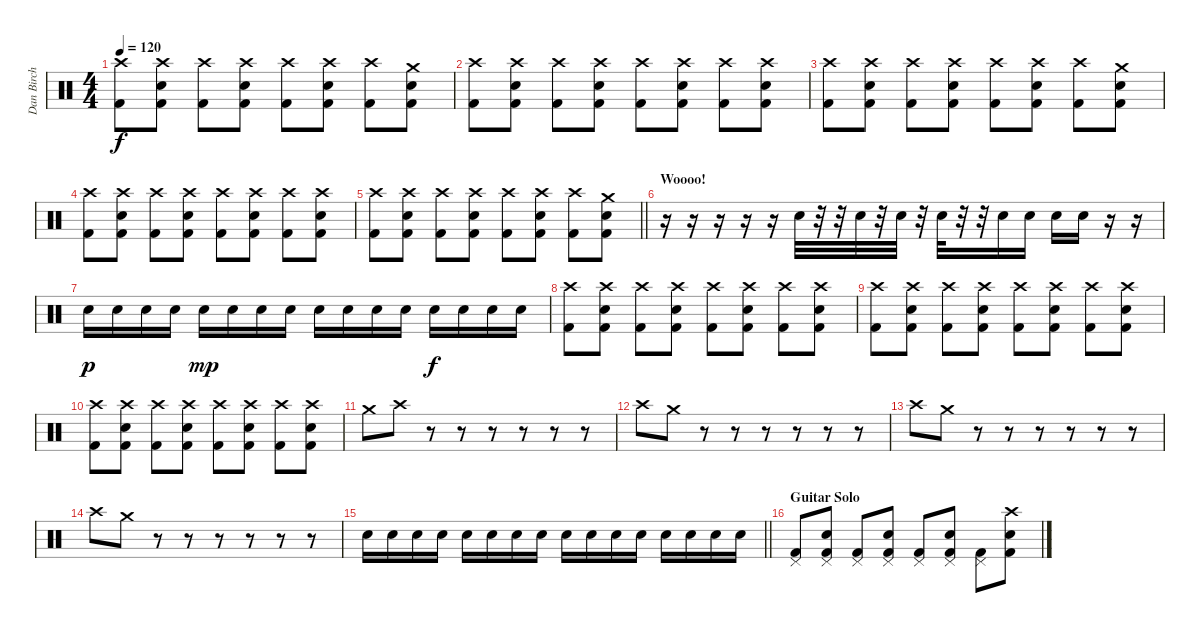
\track ("Dan Birch" "Dan Birch") {instrument percussion}
\staff {score}
\articulation defaults
\ts (4 4)
\tempo 120
\clef neutral
\ks c
("Crash high (hit)" "Kick (hit) 2").8{dy f} ("Crash high (hit)" "Snare (hit) 2" "Kick (hit) 2").8 ("Crash high (hit)" "Kick (hit) 2").8 ("Crash high (hit)" "Snare (hit) 2" "Kick (hit) 2").8 ("Crash high (hit)" "Kick (hit) 2").8 ("Crash high (hit)" "Snare (hit) 2" "Kick (hit) 2").8 ("Crash high (hit)" "Kick (hit) 2").8 ("Crash medium (hit)" "Snare (hit) 2" "Kick (hit) 2").8 |
("Crash high (hit)" "Kick (hit) 2").8 ("Crash high (hit)" "Snare (hit) 2" "Kick (hit) 2").8 ("Crash high (hit)" "Kick (hit) 2").8 ("Crash high (hit)" "Snare (hit) 2" "Kick (hit) 2").8 ("Crash high (hit)" "Kick (hit) 2").8 ("Crash high (hit)" "Snare (hit) 2" "Kick (hit) 2").8 ("Crash high (hit)" "Kick (hit) 2").8 ("Crash high (hit)" "Snare (hit) 2" "Kick (hit) 2").8 |
("Crash high (hit)" "Kick (hit) 2").8 ("Crash high (hit)" "Snare (hit) 2" "Kick (hit) 2").8 ("Crash high (hit)" "Kick (hit) 2").8 ("Crash high (hit)" "Snare (hit) 2" "Kick (hit) 2").8 ("Crash high (hit)" "Kick (hit) 2").8 ("Crash high (hit)" "Snare (hit) 2" "Kick (hit) 2").8 ("Crash high (hit)" "Kick (hit) 2").8 ("Crash medium (hit)" "Snare (hit) 2" "Kick (hit) 2").8 |
("Crash high (hit)" "Kick (hit) 2").8 ("Crash high (hit)" "Snare (hit) 2" "Kick (hit) 2").8 ("Crash high (hit)" "Kick (hit) 2").8 ("Crash high (hit)" "Snare (hit) 2" "Kick (hit) 2").8 ("Crash high (hit)" "Kick (hit) 2").8 ("Crash high (hit)" "Snare (hit) 2" "Kick (hit) 2").8 ("Crash high (hit)" "Kick (hit) 2").8 ("Crash high (hit)" "Snare (hit) 2" "Kick (hit) 2").8 |
\barLineRight lightlight
("Crash high (hit)" "Kick (hit) 2").8 ("Crash high (hit)" "Snare (hit) 2" "Kick (hit) 2").8 ("Crash high (hit)" "Kick (hit) 2").8 ("Crash high (hit)" "Snare (hit) 2" "Kick (hit) 2").8 ("Crash high (hit)" "Kick (hit) 2").8 ("Crash high (hit)" "Snare (hit) 2" "Kick (hit) 2").8 ("Crash high (hit)" "Kick (hit) 2").8 ("Crash medium (hit)" "Snare (hit) 2" "Kick (hit) 2").8 |
\section ("" "Woooo!")
r.16 r.16 r.16 r.16 r.16 "Snare (hit) 2".32 r.32 r.32 "Snare (hit) 2".32 r.32 "Snare (hit) 2".32 r.32 "Snare (hit) 2".32 r.32 r.32 "Snare (hit) 2".16 "Snare (hit) 2".16 "Snare (hit) 2".16 "Snare (hit) 2".16 r.16 r.16 |
"Snare (hit) 2".16{dy p} "Snare (hit) 2".16 "Snare (hit) 2".16 "Snare (hit) 2".16 "Snare (hit) 2".16{dy mp} "Snare (hit) 2".16 "Snare (hit) 2".16 "Snare (hit) 2".16 "Snare (hit) 2".16 "Snare (hit) 2".16 "Snare (hit) 2".16 "Snare (hit) 2".16 "Snare (hit) 2".16{dy f} "Snare (hit) 2".16 "Snare (hit) 2".16 "Snare (hit) 2".16 |
("Crash high (hit)" "Kick (hit) 2").8 ("Crash high (hit)" "Snare (hit) 2" "Kick (hit) 2").8 ("Crash high (hit)" "Kick (hit) 2").8 ("Crash high (hit)" "Snare (hit) 2" "Kick (hit) 2").8 ("Crash high (hit)" "Kick (hit) 2").8 ("Crash high (hit)" "Snare (hit) 2" "Kick (hit) 2").8 ("Crash high (hit)" "Kick (hit) 2").8 ("Crash high (hit)" "Snare (hit) 2" "Kick (hit) 2").8 |
("Crash high (hit)" "Kick (hit) 2").8 ("Crash high (hit)" "Snare (hit) 2" "Kick (hit) 2").8 ("Crash high (hit)" "Kick (hit) 2").8 ("Crash high (hit)" "Snare (hit) 2" "Kick (hit) 2").8 ("Crash high (hit)" "Kick (hit) 2").8 ("Crash high (hit)" "Snare (hit) 2" "Kick (hit) 2").8 ("Crash high (hit)" "Kick (hit) 2").8 ("Crash high (hit)" "Snare (hit) 2" "Kick (hit) 2").8 |
("Crash high (hit)" "Kick (hit) 2").8 ("Crash high (hit)" "Snare (hit) 2" "Kick (hit) 2").8 ("Crash high (hit)" "Kick (hit) 2").8 ("Crash high (hit)" "Snare (hit) 2" "Kick (hit) 2").8 ("Crash high (hit)" "Kick (hit) 2").8 ("Crash high (hit)" "Snare (hit) 2" "Kick (hit) 2").8 ("Crash high (hit)" "Kick (hit) 2").8 ("Crash high (hit)" "Snare (hit) 2" "Kick (hit) 2").8 |
"Crash medium (hit)".8 "Crash high (hit)".8 r.8 r.8 r.8 r.8 r.8 r.8 |
"Crash high (hit)".8 "Crash medium (hit)".8 r.8 r.8 r.8 r.8 r.8 r.8 |
"Crash high (hit)".8 "Crash medium (hit)".8 r.8 r.8 r.8 r.8 r.8 r.8 |
"Crash high (hit)".8 "Crash medium (hit)".8 r.8 r.8 r.8 r.8 r.8 r.8 |
\barLineRight lightlight "Snare (hit) 2".16 "Snare (hit) 2".16 "Snare (hit) 2".16 "Snare (hit) 2".16 "Snare (hit) 2".16 "Snare (hit) 2".16 "Snare (hit) 2".16 "Snare (hit) 2".16 "Snare (hit) 2".16 "Snare (hit) 2".16 "Snare (hit) 2".16 "Snare (hit) 2".16 "Snare (hit) 2".16 "Snare (hit) 2".16 "Snare (hit) 2".16 "Snare (hit) 2".16
|
\section ("" "Guitar Solo")
("Pedal Hi-Hat (hit)" "Kick (hit) 2").8 ("Pedal Hi-Hat (hit)" "Snare (hit) 2" "Kick (hit) 2").8 ("Pedal Hi-Hat (hit)" "Kick (hit) 2").8 ("Pedal Hi-Hat (hit)" "Snare (hit) 2" "Kick (hit) 2").8 ("Pedal Hi-Hat (hit)" "Kick (hit) 2").8 ("Pedal Hi-Hat (hit)" "Snare (hit) 2" "Kick (hit) 2").8 ("Pedal Hi-Hat (hit)" "Kick (hit) 2").8 ("Crash high (hit)" "Snare (hit) 2" "Kick (hit) 2").8
